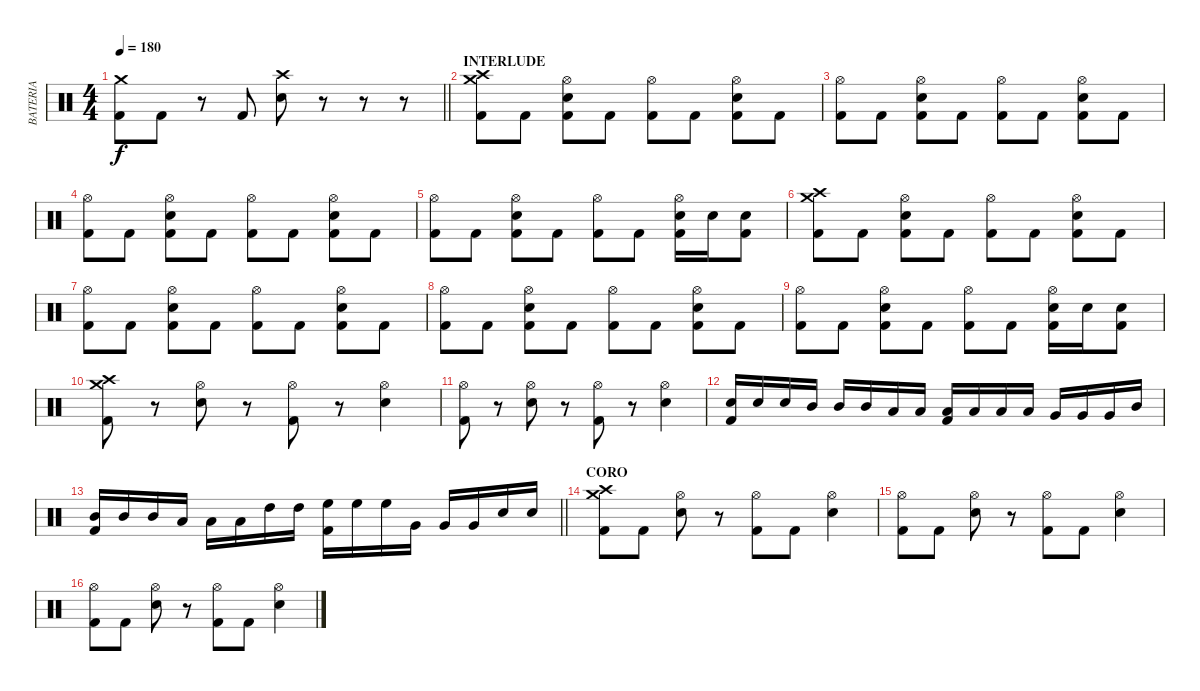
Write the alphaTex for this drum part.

\track ("BATERIA" "BATERIA") {instrument percussion}
\staff {score}
\articulation defaults
\ts (4 4)
\tempo 180
\clef neutral
\barLineRight lightlight
\ks c
("Crash medium (hit)" "Kick (hit) 2").8{dy f} "Kick (hit) 2".8 r.8 "Kick (hit) 2".8 ("Crash high (hit)" "Electric Snare (hit)").8 r.8 r.8 r.8 |
\section ("" "INTERLUDE")
("Crash high (hit)" "Crash medium (hit)" "Kick (hit) 2").8 "Kick (hit) 2".8 ("Hi-Hat (open)" "Electric Snare (hit)" "Kick (hit) 2").8 "Kick (hit) 2".8 ("Hi-Hat (open)" "Kick (hit) 2").8 "Kick (hit) 2".8 ("Hi-Hat (open)" "Electric Snare (hit)" "Kick (hit) 2").8 "Kick (hit) 2".8 |
("Hi-Hat (open)" "Kick (hit) 2").8 "Kick (hit) 2".8 ("Hi-Hat (open)" "Electric Snare (hit)" "Kick (hit) 2").8 "Kick (hit) 2".8 ("Hi-Hat (open)" "Kick (hit) 2").8 "Kick (hit) 2".8 ("Hi-Hat (open)" "Electric Snare (hit)" "Kick (hit) 2").8 "Kick (hit) 2".8 |
("Hi-Hat (open)" "Kick (hit) 2").8 "Kick (hit) 2".8 ("Hi-Hat (open)" "Electric Snare (hit)" "Kick (hit) 2").8 "Kick (hit) 2".8 ("Hi-Hat (open)" "Kick (hit) 2").8 "Kick (hit) 2".8 ("Hi-Hat (open)" "Electric Snare (hit)" "Kick (hit) 2").8 "Kick (hit) 2".8 |
("Hi-Hat (open)" "Kick (hit) 2").8 "Kick (hit) 2".8 ("Hi-Hat (open)" "Electric Snare (hit)" "Kick (hit) 2").8 "Kick (hit) 2".8 ("Hi-Hat (open)" "Kick (hit) 2").8 "Kick (hit) 2".8 ("Hi-Hat (open)" "Electric Snare (hit)" "Kick (hit) 2").16 "Electric Snare (hit)".16 ("Electric Snare (hit)" "Kick (hit) 2").8 |
("Crash high (hit)" "Crash medium (hit)" "Kick (hit) 2").8 "Kick (hit) 2".8 ("Hi-Hat (open)" "Electric Snare (hit)" "Kick (hit) 2").8 "Kick (hit) 2".8 ("Hi-Hat (open)" "Kick (hit) 2").8 "Kick (hit) 2".8 ("Hi-Hat (open)" "Electric Snare (hit)" "Kick (hit) 2").8 "Kick (hit) 2".8 |
("Hi-Hat (open)" "Kick (hit) 2").8 "Kick (hit) 2".8 ("Hi-Hat (open)" "Electric Snare (hit)" "Kick (hit) 2").8 "Kick (hit) 2".8 ("Hi-Hat (open)" "Kick (hit) 2").8 "Kick (hit) 2".8 ("Hi-Hat (open)" "Electric Snare (hit)" "Kick (hit) 2").8 "Kick (hit) 2".8 |
("Hi-Hat (open)" "Kick (hit) 2").8 "Kick (hit) 2".8 ("Hi-Hat (open)" "Electric Snare (hit)" "Kick (hit) 2").8 "Kick (hit) 2".8 ("Hi-Hat (open)" "Kick (hit) 2").8 "Kick (hit) 2".8 ("Hi-Hat (open)" "Electric Snare (hit)" "Kick (hit) 2").8 "Kick (hit) 2".8 |
("Hi-Hat (open)" "Kick (hit) 2").8 "Kick (hit) 2".8 ("Hi-Hat (open)" "Electric Snare (hit)" "Kick (hit) 2").8 "Kick (hit) 2".8 ("Hi-Hat (open)" "Kick (hit) 2").8 "Kick (hit) 2".8 ("Hi-Hat (open)" "Electric Snare (hit)" "Kick (hit) 2").16 "Electric Snare (hit)".16 ("Electric Snare (hit)" "Kick (hit) 2").8 |
("Crash high (hit)" "Crash medium (hit)" "Kick (hit) 2").8 r.8 ("Hi-Hat (open)" "Electric Snare (hit)").8 r.8 ("Hi-Hat (open)" "Kick (hit) 2").8 r.8 ("Hi-Hat (open)" "Electric Snare (hit)").4 |
("Hi-Hat (open)" "Kick (hit) 2").8 r.8 ("Hi-Hat (open)" "Electric Snare (hit)").8 r.8 ("Hi-Hat (open)" "Kick (hit) 2").8 r.8 ("Hi-Hat (open)" "Electric Snare (hit)").4 |
("Electric Snare (hit)" "Kick (hit) 2").16 "Electric Snare (hit)".16 "Electric Snare (hit)".16 "Mid Tom (hit)".16 "Mid Tom (hit)".16 "Mid Tom (hit)".16 "Low Tom (hit)".16 "Low Tom (hit)".16 ("Low Tom (hit)" "Kick (hit) 2").16 "Low Floor Tom (hit)".16 "Low Floor Tom (hit)".16 "Low Floor Tom (hit)".16 "Very Low Tom (hit)".16 "Very Low Tom (hit)".16 "Very Low Tom (hit)".16 "Mid Tom (hit)".16 |
\barLineRight lightlight
("Mid Tom (hit)" "Kick (hit) 2").16 "Mid Tom (hit)".16 "Mid Tom (hit)".16 "Low Tom (hit)".16 "Low Tom (hit)".16 "Low Tom (hit)".16 "High Tom (hit)".16 "High Tom (hit)".16 ("High Floor Tom (hit)" "Kick (hit) 2").16 "High Floor Tom (hit)".16 "High Floor Tom (hit)".16 "Very Low Tom (hit)".16 "Very Low Tom (hit)".16 "Very Low Tom (hit)".16 "Electric Snare (hit)".16 "Electric Snare (hit)".16 |
\section ("" "CORO")
("Crash high (hit)" "Crash medium (hit)" "Kick (hit) 2").8 "Kick (hit) 2".8 ("Hi-Hat (open)" "Electric Snare (hit)").8 r.8 ("Hi-Hat (open)" "Kick (hit) 2").8 "Kick (hit) 2".8 ("Hi-Hat (open)" "Electric Snare (hit)").4 |
("Hi-Hat (open)" "Kick (hit) 2").8 "Kick (hit) 2".8 ("Hi-Hat (open)" "Electric Snare (hit)").8 r.8 ("Hi-Hat (open)" "Kick (hit) 2").8 "Kick (hit) 2".8 ("Hi-Hat (open)" "Electric Snare (hit)").4 |
("Hi-Hat (open)" "Kick (hit) 2").8 "Kick (hit) 2".8 ("Hi-Hat (open)" "Electric Snare (hit)").8 r.8 ("Hi-Hat (open)" "Kick (hit) 2").8 "Kick (hit) 2".8 ("Hi-Hat (open)" "Electric Snare (hit)").4
